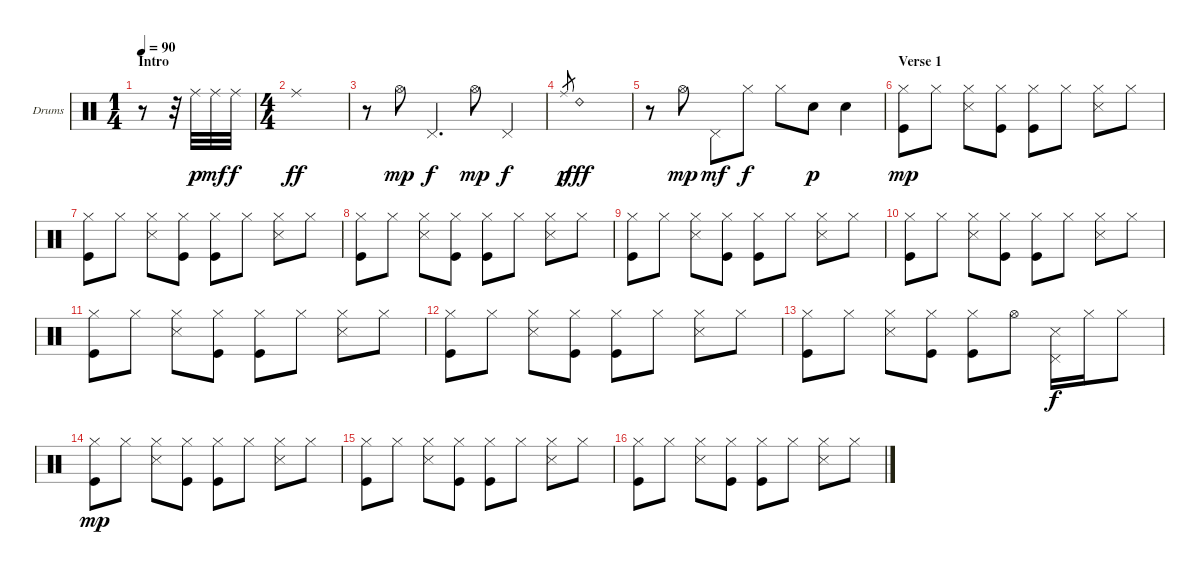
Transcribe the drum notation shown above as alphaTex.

\bracketExtendMode groupsimilarinstruments
\firstSystemTrackNameOrientation horizontal
\otherSystemsTrackNameOrientation horizontal
\track ("Drumkit" "Drums") {instrument percussion}
\staff {score}
\articulation defaults
\ts (1 4)
\section ("" "Intro")
\tempo 90
\clef neutral
\ks c
r.8{dy p} r.32 "Ride (middle)".32 "Ride (middle)".32{dy mf} "Ride (middle)".32{dy f} |
\ts (4 4)
"Ride (middle)".1{dy ff} |
r.8 "Hi-Hat (open)".8{dy mp} "Pedal Hi-Hat (hit)".4{d dy f} "Hi-Hat (open)".8{dy mp} "Pedal Hi-Hat (hit)".4{dy f} |
"Ride (middle)".8{gr dy p} "Ride (bell) 2".1{dy fff} |
r.8 "Hi-Hat (open)".8{dy mp} "Pedal Hi-Hat (hit)".8{dy mf} "Hi-Hat (closed)".8{dy f} "Hi-Hat (closed)".8 "Snare (hit) 2".8{dy p} "Snare (hit) 2".4 |
\section ("" "Verse 1")
("Hi-Hat (closed)" "Kick (hit)").8{dy mp} "Hi-Hat (closed)".8 ("Hi-Hat (closed)" "Snare (side stick) 3").8 ("Hi-Hat (closed)" "Kick (hit)").8 ("Hi-Hat (closed)" "Kick (hit)").8 "Hi-Hat (closed)".8 ("Hi-Hat (closed)" "Snare (side stick) 3").8 "Hi-Hat (closed)".8 |
("Hi-Hat (closed)" "Kick (hit)").8 "Hi-Hat (closed)".8 ("Hi-Hat (closed)" "Snare (side stick) 3").8 ("Hi-Hat (closed)" "Kick (hit)").8 ("Hi-Hat (closed)" "Kick (hit)").8 "Hi-Hat (closed)".8 ("Hi-Hat (closed)" "Snare (side stick) 3").8 "Hi-Hat (closed)".8 |
("Hi-Hat (closed)" "Kick (hit)").8 "Hi-Hat (closed)".8 ("Hi-Hat (closed)" "Snare (side stick) 3").8 ("Hi-Hat (closed)" "Kick (hit)").8 ("Hi-Hat (closed)" "Kick (hit)").8 "Hi-Hat (closed)".8 ("Hi-Hat (closed)" "Snare (side stick) 3").8 "Hi-Hat (closed)".8 |
("Hi-Hat (closed)" "Kick (hit)").8 "Hi-Hat (closed)".8 ("Hi-Hat (closed)" "Snare (side stick) 3").8 ("Hi-Hat (closed)" "Kick (hit)").8 ("Hi-Hat (closed)" "Kick (hit)").8 "Hi-Hat (closed)".8 ("Hi-Hat (closed)" "Snare (side stick) 3").8 "Hi-Hat (closed)".8 |
("Hi-Hat (closed)" "Kick (hit)").8 "Hi-Hat (closed)".8 ("Hi-Hat (closed)" "Snare (side stick) 3").8 ("Hi-Hat (closed)" "Kick (hit)").8 ("Hi-Hat (closed)" "Kick (hit)").8 "Hi-Hat (closed)".8 ("Hi-Hat (closed)" "Snare (side stick) 3").8 "Hi-Hat (closed)".8 |
("Hi-Hat (closed)" "Kick (hit)").8 "Hi-Hat (closed)".8 ("Hi-Hat (closed)" "Snare (side stick) 3").8 ("Hi-Hat (closed)" "Kick (hit)").8 ("Hi-Hat (closed)" "Kick (hit)").8 "Hi-Hat (closed)".8 ("Hi-Hat (closed)" "Snare (side stick) 3").8 "Hi-Hat (closed)".8 |
("Hi-Hat (closed)" "Kick (hit)").8 "Hi-Hat (closed)".8 ("Hi-Hat (closed)" "Snare (side stick) 3").8 ("Hi-Hat (closed)" "Kick (hit)").8 ("Hi-Hat (closed)" "Kick (hit)").8 "Hi-Hat (closed)".8 ("Hi-Hat (closed)" "Snare (side stick) 3").8 "Hi-Hat (closed)".8 |
("Hi-Hat (closed)" "Kick (hit)").8 "Hi-Hat (closed)".8 ("Hi-Hat (closed)" "Snare (side stick) 3").8 ("Hi-Hat (closed)" "Kick (hit)").8 ("Hi-Hat (closed)" "Kick (hit)").8 "Hi-Hat (open)".8 ("Pedal Hi-Hat (hit)" "Snare (side stick) 3").16{dy f} "Hi-Hat (closed)".16 "Hi-Hat (closed)".8 |
("Hi-Hat (closed)" "Kick (hit)").8{dy mp} "Hi-Hat (closed)".8 ("Hi-Hat (closed)" "Snare (side stick) 3").8 ("Hi-Hat (closed)" "Kick (hit)").8 ("Hi-Hat (closed)" "Kick (hit)").8 "Hi-Hat (closed)".8 ("Hi-Hat (closed)" "Snare (side stick) 3").8 "Hi-Hat (closed)".8 |
("Hi-Hat (closed)" "Kick (hit)").8 "Hi-Hat (closed)".8 ("Hi-Hat (closed)" "Snare (side stick) 3").8 ("Hi-Hat (closed)" "Kick (hit)").8 ("Hi-Hat (closed)" "Kick (hit)").8 "Hi-Hat (closed)".8 ("Hi-Hat (closed)" "Snare (side stick) 3").8 "Hi-Hat (closed)".8 |
("Hi-Hat (closed)" "Kick (hit)").8 "Hi-Hat (closed)".8 ("Hi-Hat (closed)" "Snare (side stick) 3").8 ("Hi-Hat (closed)" "Kick (hit)").8 ("Hi-Hat (closed)" "Kick (hit)").8 "Hi-Hat (closed)".8 ("Hi-Hat (closed)" "Snare (side stick) 3").8 "Hi-Hat (closed)".8
